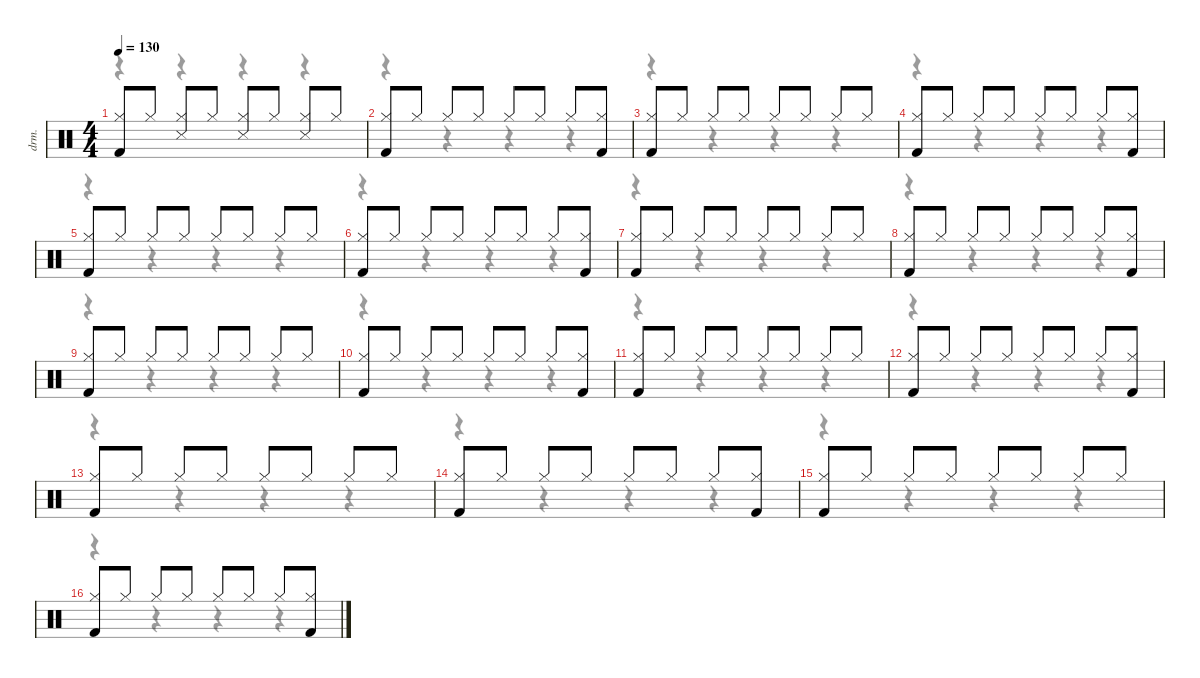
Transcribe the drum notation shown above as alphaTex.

\defaultSystemsLayout 4
\hideDynamics
\bracketExtendMode nobrackets
\track ("Drums" "drm.") {instrument percussion}
\staff {score}
\articulation defaults
\voice
\ts (4 4)
\tempo 130
\clef neutral
\ks c
("Kick (hit) 2" "Hi-Hat (closed)").8{dy fff beam Up} "Hi-Hat (closed)".8{beam Up} ("Snare (side stick) 3" "Hi-Hat (closed)").8{beam Up} "Hi-Hat (closed)".8{beam Up} ("Snare (side stick) 3" "Hi-Hat (closed)").8{beam Up} "Hi-Hat (closed)".8{beam Up} ("Snare (side stick) 3" "Hi-Hat (closed)").8{beam Up} "Hi-Hat (closed)".8{beam Up} |
("Kick (hit) 2" "Hi-Hat (closed)").8{beam Up} "Hi-Hat (closed)".8{beam Up} "Hi-Hat (closed)".8{beam Up} "Hi-Hat (closed)".8{beam Up} "Hi-Hat (closed)".8{beam Up} "Hi-Hat (closed)".8{beam Up} "Hi-Hat (closed)".8{beam Up} ("Kick (hit) 2" "Hi-Hat (closed)").8{beam Up} |
("Kick (hit) 2" "Hi-Hat (closed)").8{beam Up} "Hi-Hat (closed)".8{beam Up} "Hi-Hat (closed)".8{beam Up} "Hi-Hat (closed)".8{beam Up} "Hi-Hat (closed)".8{beam Up} "Hi-Hat (closed)".8{beam Up} "Hi-Hat (closed)".8{beam Up} "Hi-Hat (closed)".8{beam Up} |
("Kick (hit) 2" "Hi-Hat (closed)").8{beam Up} "Hi-Hat (closed)".8{beam Up} "Hi-Hat (closed)".8{beam Up} "Hi-Hat (closed)".8{beam Up} "Hi-Hat (closed)".8{beam Up} "Hi-Hat (closed)".8{beam Up} "Hi-Hat (closed)".8{beam Up} ("Kick (hit) 2" "Hi-Hat (closed)").8{beam Up} |
("Kick (hit) 2" "Hi-Hat (closed)").8{beam Up} "Hi-Hat (closed)".8{beam Up} "Hi-Hat (closed)".8{beam Up} "Hi-Hat (closed)".8{beam Up} "Hi-Hat (closed)".8{beam Up} "Hi-Hat (closed)".8{beam Up} "Hi-Hat (closed)".8{beam Up} "Hi-Hat (closed)".8{beam Up} |
("Kick (hit) 2" "Hi-Hat (closed)").8{beam Up} "Hi-Hat (closed)".8{beam Up} "Hi-Hat (closed)".8{beam Up} "Hi-Hat (closed)".8{beam Up} "Hi-Hat (closed)".8{beam Up} "Hi-Hat (closed)".8{beam Up} "Hi-Hat (closed)".8{beam Up} ("Kick (hit) 2" "Hi-Hat (closed)").8{beam Up} |
("Kick (hit) 2" "Hi-Hat (closed)").8{beam Up} "Hi-Hat (closed)".8{beam Up} "Hi-Hat (closed)".8{beam Up} "Hi-Hat (closed)".8{beam Up} "Hi-Hat (closed)".8{beam Up} "Hi-Hat (closed)".8{beam Up} "Hi-Hat (closed)".8{beam Up} "Hi-Hat (closed)".8{beam Up} |
("Kick (hit) 2" "Hi-Hat (closed)").8{beam Up} "Hi-Hat (closed)".8{beam Up} "Hi-Hat (closed)".8{beam Up} "Hi-Hat (closed)".8{beam Up} "Hi-Hat (closed)".8{beam Up} "Hi-Hat (closed)".8{beam Up} "Hi-Hat (closed)".8{beam Up} ("Kick (hit) 2" "Hi-Hat (closed)").8{beam Up} |
("Kick (hit) 2" "Hi-Hat (closed)").8{beam Up} "Hi-Hat (closed)".8{beam Up} "Hi-Hat (closed)".8{beam Up} "Hi-Hat (closed)".8{beam Up} "Hi-Hat (closed)".8{beam Up} "Hi-Hat (closed)".8{beam Up} "Hi-Hat (closed)".8{beam Up} "Hi-Hat (closed)".8{beam Up} |
("Kick (hit) 2" "Hi-Hat (closed)").8{beam Up} "Hi-Hat (closed)".8{beam Up} "Hi-Hat (closed)".8{beam Up} "Hi-Hat (closed)".8{beam Up} "Hi-Hat (closed)".8{beam Up} "Hi-Hat (closed)".8{beam Up} "Hi-Hat (closed)".8{beam Up} ("Kick (hit) 2" "Hi-Hat (closed)").8{beam Up} |
("Kick (hit) 2" "Hi-Hat (closed)").8{beam Up} "Hi-Hat (closed)".8{beam Up} "Hi-Hat (closed)".8{beam Up} "Hi-Hat (closed)".8{beam Up} "Hi-Hat (closed)".8{beam Up} "Hi-Hat (closed)".8{beam Up} "Hi-Hat (closed)".8{beam Up} "Hi-Hat (closed)".8{beam Up} |
("Kick (hit) 2" "Hi-Hat (closed)").8{beam Up} "Hi-Hat (closed)".8{beam Up} "Hi-Hat (closed)".8{beam Up} "Hi-Hat (closed)".8{beam Up} "Hi-Hat (closed)".8{beam Up} "Hi-Hat (closed)".8{beam Up} "Hi-Hat (closed)".8{beam Up} ("Kick (hit) 2" "Hi-Hat (closed)").8{beam Up} |
("Kick (hit) 2" "Hi-Hat (closed)").8{beam Up} "Hi-Hat (closed)".8{beam Up} "Hi-Hat (closed)".8{beam Up} "Hi-Hat (closed)".8{beam Up} "Hi-Hat (closed)".8{beam Up} "Hi-Hat (closed)".8{beam Up} "Hi-Hat (closed)".8{beam Up} "Hi-Hat (closed)".8{beam Up} |
("Kick (hit) 2" "Hi-Hat (closed)").8{beam Up} "Hi-Hat (closed)".8{beam Up} "Hi-Hat (closed)".8{beam Up} "Hi-Hat (closed)".8{beam Up} "Hi-Hat (closed)".8{beam Up} "Hi-Hat (closed)".8{beam Up} "Hi-Hat (closed)".8{beam Up} ("Kick (hit) 2" "Hi-Hat (closed)").8{beam Up} |
("Kick (hit) 2" "Hi-Hat (closed)").8{beam Up} "Hi-Hat (closed)".8{beam Up} "Hi-Hat (closed)".8{beam Up} "Hi-Hat (closed)".8{beam Up} "Hi-Hat (closed)".8{beam Up} "Hi-Hat (closed)".8{beam Up} "Hi-Hat (closed)".8{beam Up} "Hi-Hat (closed)".8{beam Up} |
("Kick (hit) 2" "Hi-Hat (closed)").8{beam Up} "Hi-Hat (closed)".8{beam Up} "Hi-Hat (closed)".8{beam Up} "Hi-Hat (closed)".8{beam Up} "Hi-Hat (closed)".8{beam Up} "Hi-Hat (closed)".8{beam Up} "Hi-Hat (closed)".8{beam Up} ("Kick (hit) 2" "Hi-Hat (closed)").8{beam Up}
\voice
\clef neutral
\ottava regular
\simile none
\ks c
r.4{dy mf beam Down} r.4{beam Down} r.4{beam Down} r.4{beam Down} |
r.4{beam Down} r.4{beam Down} r.4{beam Down} r.4{beam Down} |
r.4{beam Down} r.4{beam Down} r.4{beam Down} r.4{beam Down} |
r.4{beam Down} r.4{beam Down} r.4{beam Down} r.4{beam Down} |
r.4{beam Down} r.4{beam Down} r.4{beam Down} r.4{beam Down} |
r.4{beam Down} r.4{beam Down} r.4{beam Down} r.4{beam Down} |
r.4{beam Down} r.4{beam Down} r.4{beam Down} r.4{beam Down} |
r.4{beam Down} r.4{beam Down} r.4{beam Down} r.4{beam Down} |
r.4{beam Down} r.4{beam Down} r.4{beam Down} r.4{beam Down} |
r.4{beam Down} r.4{beam Down} r.4{beam Down} r.4{beam Down} |
r.4{beam Down} r.4{beam Down} r.4{beam Down} r.4{beam Down} |
r.4{beam Down} r.4{beam Down} r.4{beam Down} r.4{beam Down} |
r.4{beam Down} r.4{beam Down} r.4{beam Down} r.4{beam Down} |
r.4{beam Down} r.4{beam Down} r.4{beam Down} r.4{beam Down} |
r.4{beam Down} r.4{beam Down} r.4{beam Down} r.4{beam Down} |
r.4{beam Down} r.4{beam Down} r.4{beam Down} r.4{beam Down}
